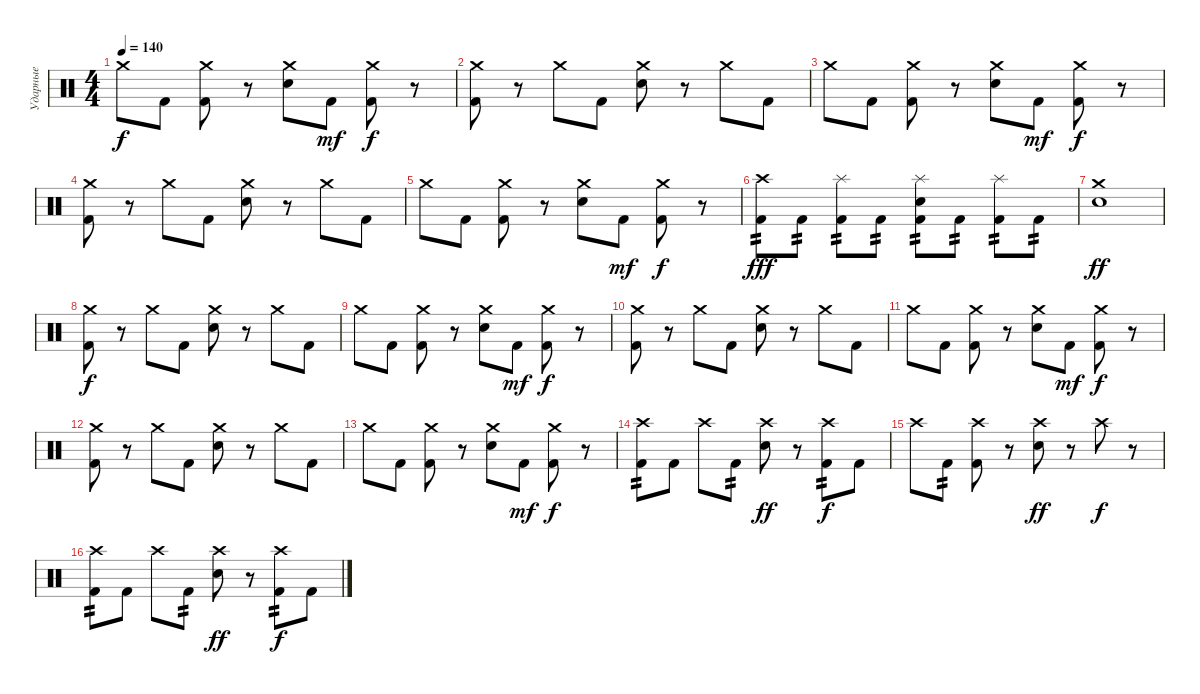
\track ("Ударные" "Ударные") {instrument percussion}
\staff {score}
\articulation defaults
\ts (4 4)
\tempo 140
\clef neutral
\ks c "Crash medium (hit)".8{dy f} "Kick (hit) 2".8
("Crash medium (hit)" "Kick (hit) 2").8 r.8 ("Crash medium (hit)" "Snare (hit) 2").8 "Kick (hit) 2".8{dy mf} ("Crash medium (hit)" "Kick (hit) 2").8{dy f} r.8 |
("Crash medium (hit)" "Kick (hit) 2").8 r.8 "Crash medium (hit)".8 "Kick (hit) 2".8 ("Crash medium (hit)" "Snare (hit) 2").8 r.8 "Crash medium (hit)".8 "Kick (hit) 2".8 |
"Crash medium (hit)".8 "Kick (hit) 2".8 ("Crash medium (hit)" "Kick (hit) 2").8 r.8 ("Crash medium (hit)" "Snare (hit) 2").8 "Kick (hit) 2".8{dy mf} ("Crash medium (hit)" "Kick (hit) 2").8{dy f} r.8 |
("Crash medium (hit)" "Kick (hit) 2").8 r.8 "Crash medium (hit)".8 "Kick (hit) 2".8 ("Crash medium (hit)" "Snare (hit) 2").8 r.8 "Crash medium (hit)".8 "Kick (hit) 2".8 |
"Crash medium (hit)".8 "Kick (hit) 2".8 ("Crash medium (hit)" "Kick (hit) 2").8 r.8 ("Crash medium (hit)" "Snare (hit) 2").8 "Kick (hit) 2".8{dy mf} ("Crash medium (hit)" "Kick (hit) 2").8{dy f} r.8 |
("Crash high (hit)" "Kick (hit) 2").8{tp 2 dy fff} "Kick (hit) 2".8{tp 2} ("Splash (hit)" "Kick (hit) 2").8{tp 2} "Kick (hit) 2".8{tp 2} ("Splash (hit)" "Snare (hit) 2" "Kick (hit) 2").8{tp 2} "Kick (hit) 2".8{tp 2} ("Splash (hit)" "Kick (hit) 2").8{tp 2} "Kick (hit) 2".8{tp 2} |
("Crash medium (hit)" "Snare (hit) 2").1{dy ff} |
("Crash medium (hit)" "Kick (hit) 2").8{dy f} r.8 "Crash medium (hit)".8 "Kick (hit) 2".8 ("Crash medium (hit)" "Snare (hit) 2").8 r.8 "Crash medium (hit)".8 "Kick (hit) 2".8 |
"Crash medium (hit)".8 "Kick (hit) 2".8 ("Crash medium (hit)" "Kick (hit) 2").8 r.8 ("Crash medium (hit)" "Snare (hit) 2").8 "Kick (hit) 2".8{dy mf} ("Crash medium (hit)" "Kick (hit) 2").8{dy f} r.8 |
("Crash medium (hit)" "Kick (hit) 2").8 r.8 "Crash medium (hit)".8 "Kick (hit) 2".8 ("Crash medium (hit)" "Snare (hit) 2").8 r.8 "Crash medium (hit)".8 "Kick (hit) 2".8 |
"Crash medium (hit)".8 "Kick (hit) 2".8 ("Crash medium (hit)" "Kick (hit) 2").8 r.8 ("Crash medium (hit)" "Snare (hit) 2").8 "Kick (hit) 2".8{dy mf} ("Crash medium (hit)" "Kick (hit) 2").8{dy f} r.8 |
("Crash medium (hit)" "Kick (hit) 2").8 r.8 "Crash medium (hit)".8 "Kick (hit) 2".8 ("Crash medium (hit)" "Snare (hit) 2").8 r.8 "Crash medium (hit)".8 "Kick (hit) 2".8 |
"Crash medium (hit)".8 "Kick (hit) 2".8 ("Crash medium (hit)" "Kick (hit) 2").8 r.8 ("Crash medium (hit)" "Snare (hit) 2").8 "Kick (hit) 2".8{dy mf} ("Crash medium (hit)" "Kick (hit) 2").8{dy f} r.8 |
("Crash high (hit)" "Kick (hit) 2").8{tp 2} "Kick (hit) 2".8 "Crash high (hit)".8 "Kick (hit) 2".8{tp 2} ("Crash high (hit)" "Electric Snare (hit)").8{dy ff} r.8 ("Crash high (hit)" "Kick (hit) 2").8{tp 2 dy f} "Kick (hit) 2".8 |
"Crash high (hit)".8 "Kick (hit) 2".8{tp 2} ("Crash high (hit)" "Kick (hit) 2").8 r.8 ("Crash high (hit)" "Electric Snare (hit)").8{dy ff} r.8 "Crash high (hit)".8{dy f} r.8 |
("Crash high (hit)" "Kick (hit) 2").8{tp 2} "Kick (hit) 2".8 "Crash high (hit)".8 "Kick (hit) 2".8{tp 2} ("Crash high (hit)" "Electric Snare (hit)").8{dy ff} r.8 ("Crash high (hit)" "Kick (hit) 2").8{tp 2 dy f} "Kick (hit) 2".8
